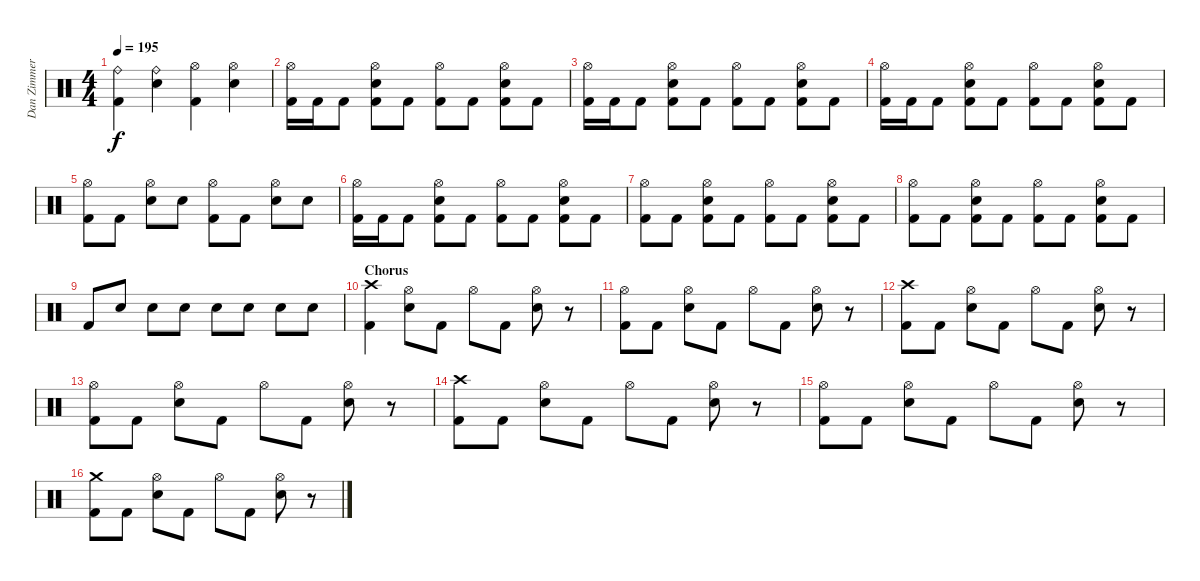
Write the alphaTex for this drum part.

\track ("Dan Zimmermann" "Dan Zimmer") {instrument percussion}
\staff {score}
\articulation defaults
\ts (4 4)
\tempo 195
\clef neutral
\ks c
("Ride (bell)" "Kick (hit) 2").4{dy f} ("Ride (bell)" "Electric Snare (hit)").4 ("Hi-Hat (open)" "Kick (hit) 2").4 ("Hi-Hat (open)" "Electric Snare (hit)").4 |
("Hi-Hat (open)" "Kick (hit) 2").16 "Kick (hit) 2".16 "Kick (hit) 2".8 ("Hi-Hat (open)" "Electric Snare (hit)" "Kick (hit) 2").8 "Kick (hit) 2".8 ("Hi-Hat (open)" "Kick (hit) 2").8 "Kick (hit) 2".8 ("Hi-Hat (open)" "Electric Snare (hit)" "Kick (hit) 2").8 "Kick (hit) 2".8 |
("Hi-Hat (open)" "Kick (hit) 2").16 "Kick (hit) 2".16 "Kick (hit) 2".8 ("Hi-Hat (open)" "Electric Snare (hit)" "Kick (hit) 2").8 "Kick (hit) 2".8 ("Hi-Hat (open)" "Kick (hit) 2").8 "Kick (hit) 2".8 ("Hi-Hat (open)" "Electric Snare (hit)" "Kick (hit) 2").8 "Kick (hit) 2".8 |
("Hi-Hat (open)" "Kick (hit) 2").16 "Kick (hit) 2".16 "Kick (hit) 2".8 ("Hi-Hat (open)" "Electric Snare (hit)" "Kick (hit) 2").8 "Kick (hit) 2".8 ("Hi-Hat (open)" "Kick (hit) 2").8 "Kick (hit) 2".8 ("Hi-Hat (open)" "Electric Snare (hit)" "Kick (hit) 2").8 "Kick (hit) 2".8 |
("Hi-Hat (open)" "Kick (hit) 2").8 "Kick (hit) 2".8 ("Hi-Hat (open)" "Electric Snare (hit)").8 "Electric Snare (hit)".8 ("Hi-Hat (open)" "Kick (hit) 2").8 "Kick (hit) 2".8 ("Hi-Hat (open)" "Electric Snare (hit)").8 "Electric Snare (hit)".8 |
("Hi-Hat (open)" "Kick (hit) 2").16 "Kick (hit) 2".16 "Kick (hit) 2".8 ("Hi-Hat (open)" "Electric Snare (hit)" "Kick (hit) 2").8 "Kick (hit) 2".8 ("Hi-Hat (open)" "Kick (hit) 2").8 "Kick (hit) 2".8 ("Hi-Hat (open)" "Electric Snare (hit)" "Kick (hit) 2").8 "Kick (hit) 2".8 |
("Hi-Hat (open)" "Kick (hit) 2").8 "Kick (hit) 2".8 ("Hi-Hat (open)" "Electric Snare (hit)" "Kick (hit) 2").8 "Kick (hit) 2".8 ("Hi-Hat (open)" "Kick (hit) 2").8 "Kick (hit) 2".8 ("Hi-Hat (open)" "Electric Snare (hit)" "Kick (hit) 2").8 "Kick (hit) 2".8 |
("Hi-Hat (open)" "Kick (hit) 2").8 "Kick (hit) 2".8 ("Hi-Hat (open)" "Electric Snare (hit)" "Kick (hit) 2").8 "Kick (hit) 2".8 ("Hi-Hat (open)" "Kick (hit) 2").8 "Kick (hit) 2".8 ("Hi-Hat (open)" "Electric Snare (hit)" "Kick (hit) 2").8 "Kick (hit) 2".8 |
"Kick (hit) 2".8 "Electric Snare (hit)".8 "Electric Snare (hit)".8 "Electric Snare (hit)".8 "Electric Snare (hit)".8 "Electric Snare (hit)".8 "Electric Snare (hit)".8 "Electric Snare (hit)".8 |
\section ("" "Chorus")
("Crash high (hit)" "Kick (hit) 2").4 ("Hi-Hat (open)" "Electric Snare (hit)").8 "Kick (hit) 2".8 "Hi-Hat (open)".8 "Kick (hit) 2".8 ("Hi-Hat (open)" "Electric Snare (hit)").8 r.8 |
("Hi-Hat (open)" "Kick (hit) 2").8 "Kick (hit) 2".8 ("Hi-Hat (open)" "Electric Snare (hit)").8 "Kick (hit) 2".8 "Hi-Hat (open)".8 "Kick (hit) 2".8 ("Hi-Hat (open)" "Electric Snare (hit)").8 r.8 |
("Crash high (hit)" "Kick (hit) 2").8 "Kick (hit) 2".8 ("Hi-Hat (open)" "Electric Snare (hit)").8 "Kick (hit) 2".8 "Hi-Hat (open)".8 "Kick (hit) 2".8 ("Hi-Hat (open)" "Electric Snare (hit)").8 r.8 |
("Hi-Hat (open)" "Kick (hit) 2").8 "Kick (hit) 2".8 ("Hi-Hat (open)" "Electric Snare (hit)").8 "Kick (hit) 2".8 "Hi-Hat (open)".8 "Kick (hit) 2".8 ("Hi-Hat (open)" "Electric Snare (hit)").8 r.8 |
("Crash high (hit)" "Kick (hit) 2").8 "Kick (hit) 2".8 ("Hi-Hat (open)" "Electric Snare (hit)").8 "Kick (hit) 2".8 "Hi-Hat (open)".8 "Kick (hit) 2".8 ("Hi-Hat (open)" "Electric Snare (hit)").8 r.8 |
("Hi-Hat (open)" "Kick (hit) 2").8 "Kick (hit) 2".8 ("Hi-Hat (open)" "Electric Snare (hit)").8 "Kick (hit) 2".8 "Hi-Hat (open)".8 "Kick (hit) 2".8 ("Hi-Hat (open)" "Electric Snare (hit)").8 r.8 |
("Crash medium (hit)" "Kick (hit) 2").8 "Kick (hit) 2".8 ("Hi-Hat (open)" "Electric Snare (hit)").8 "Kick (hit) 2".8 "Hi-Hat (open)".8 "Kick (hit) 2".8 ("Hi-Hat (open)" "Electric Snare (hit)").8 r.8
